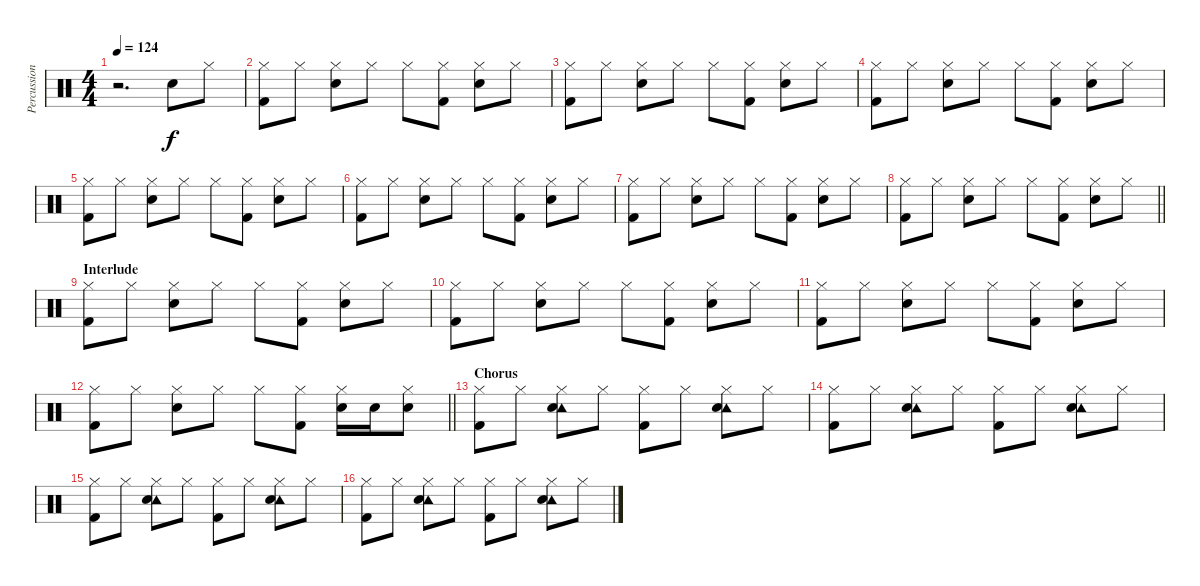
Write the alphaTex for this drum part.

\track ("Percussion" "Percussion") {instrument percussion}
\staff {score}
\articulation defaults
\ts (4 4)
\tempo 124
\clef neutral
\ks c
r.2{d dy f} "Snare (hit) 2".8 "Hi-Hat (closed)".8 |
("Hi-Hat (closed)" "Kick (hit) 2").8 "Hi-Hat (closed)".8 ("Hi-Hat (closed)" "Snare (hit) 2").8 "Hi-Hat (closed)".8 "Hi-Hat (closed)".8 ("Hi-Hat (closed)" "Kick (hit) 2").8 ("Hi-Hat (closed)" "Snare (hit) 2").8 "Hi-Hat (closed)".8 |
("Hi-Hat (closed)" "Kick (hit) 2").8 "Hi-Hat (closed)".8 ("Hi-Hat (closed)" "Snare (hit) 2").8 "Hi-Hat (closed)".8 "Hi-Hat (closed)".8 ("Hi-Hat (closed)" "Kick (hit) 2").8 ("Hi-Hat (closed)" "Snare (hit) 2").8 "Hi-Hat (closed)".8 |
("Hi-Hat (closed)" "Kick (hit) 2").8 "Hi-Hat (closed)".8 ("Hi-Hat (closed)" "Snare (hit) 2").8 "Hi-Hat (closed)".8 "Hi-Hat (closed)".8 ("Hi-Hat (closed)" "Kick (hit) 2").8 ("Hi-Hat (closed)" "Snare (hit) 2").8 "Hi-Hat (closed)".8 |
("Hi-Hat (closed)" "Kick (hit) 2").8 "Hi-Hat (closed)".8 ("Hi-Hat (closed)" "Snare (hit) 2").8 "Hi-Hat (closed)".8 "Hi-Hat (closed)".8 ("Hi-Hat (closed)" "Kick (hit) 2").8 ("Hi-Hat (closed)" "Snare (hit) 2").8 "Hi-Hat (closed)".8 |
("Hi-Hat (closed)" "Kick (hit) 2").8 "Hi-Hat (closed)".8 ("Hi-Hat (closed)" "Snare (hit) 2").8 "Hi-Hat (closed)".8 "Hi-Hat (closed)".8 ("Hi-Hat (closed)" "Kick (hit) 2").8 ("Hi-Hat (closed)" "Snare (hit) 2").8 "Hi-Hat (closed)".8 |
("Hi-Hat (closed)" "Kick (hit) 2").8 "Hi-Hat (closed)".8 ("Hi-Hat (closed)" "Snare (hit) 2").8 "Hi-Hat (closed)".8 "Hi-Hat (closed)".8 ("Hi-Hat (closed)" "Kick (hit) 2").8 ("Hi-Hat (closed)" "Snare (hit) 2").8 "Hi-Hat (closed)".8 |
\barLineRight lightlight
("Hi-Hat (closed)" "Kick (hit) 2").8 "Hi-Hat (closed)".8 ("Hi-Hat (closed)" "Snare (hit) 2").8 "Hi-Hat (closed)".8 "Hi-Hat (closed)".8 ("Hi-Hat (closed)" "Kick (hit) 2").8 ("Hi-Hat (closed)" "Snare (hit) 2").8 "Hi-Hat (closed)".8 |
\section ("" "Interlude")
("Hi-Hat (closed)" "Kick (hit) 2").8 "Hi-Hat (closed)".8 ("Hi-Hat (closed)" "Snare (hit) 2").8 "Hi-Hat (closed)".8 "Hi-Hat (closed)".8 ("Hi-Hat (closed)" "Kick (hit) 2").8 ("Hi-Hat (closed)" "Snare (hit) 2").8 "Hi-Hat (closed)".8 |
("Hi-Hat (closed)" "Kick (hit) 2").8 "Hi-Hat (closed)".8 ("Hi-Hat (closed)" "Snare (hit) 2").8 "Hi-Hat (closed)".8 "Hi-Hat (closed)".8 ("Hi-Hat (closed)" "Kick (hit) 2").8 ("Hi-Hat (closed)" "Snare (hit) 2").8 "Hi-Hat (closed)".8 |
("Hi-Hat (closed)" "Kick (hit) 2").8 "Hi-Hat (closed)".8 ("Hi-Hat (closed)" "Snare (hit) 2").8 "Hi-Hat (closed)".8 "Hi-Hat (closed)".8 ("Hi-Hat (closed)" "Kick (hit) 2").8 ("Hi-Hat (closed)" "Snare (hit) 2").8 "Hi-Hat (closed)".8 |
\barLineRight lightlight
("Hi-Hat (closed)" "Kick (hit) 2").8 "Hi-Hat (closed)".8 ("Hi-Hat (closed)" "Snare (hit) 2").8 "Hi-Hat (closed)".8 "Hi-Hat (closed)".8 ("Hi-Hat (closed)" "Kick (hit) 2").8 ("Hi-Hat (closed)" "Snare (hit) 2").16 "Snare (hit) 2".16 ("Hi-Hat (closed)" "Snare (hit) 2").8 |
\section ("" "Chorus")
("Hi-Hat (closed)" "Kick (hit) 2").8 "Hi-Hat (closed)".8 ("Hi-Hat (closed)" "Tambourine (hit)" "Snare (hit) 2").8 "Hi-Hat (closed)".8 ("Hi-Hat (closed)" "Kick (hit) 2").8 "Hi-Hat (closed)".8 ("Hi-Hat (closed)" "Tambourine (hit)" "Snare (hit) 2").8 "Hi-Hat (closed)".8 |
("Hi-Hat (closed)" "Kick (hit) 2").8 "Hi-Hat (closed)".8 ("Hi-Hat (closed)" "Tambourine (hit)" "Snare (hit) 2").8 "Hi-Hat (closed)".8 ("Hi-Hat (closed)" "Kick (hit) 2").8 "Hi-Hat (closed)".8 ("Hi-Hat (closed)" "Tambourine (hit)" "Snare (hit) 2").8 "Hi-Hat (closed)".8 |
("Hi-Hat (closed)" "Kick (hit) 2").8 "Hi-Hat (closed)".8 ("Hi-Hat (closed)" "Tambourine (hit)" "Snare (hit) 2").8 "Hi-Hat (closed)".8 ("Hi-Hat (closed)" "Kick (hit) 2").8 "Hi-Hat (closed)".8 ("Hi-Hat (closed)" "Tambourine (hit)" "Snare (hit) 2").8 "Hi-Hat (closed)".8 |
("Hi-Hat (closed)" "Kick (hit) 2").8 "Hi-Hat (closed)".8 ("Hi-Hat (closed)" "Tambourine (hit)" "Snare (hit) 2").8 "Hi-Hat (closed)".8 ("Hi-Hat (closed)" "Kick (hit) 2").8 "Hi-Hat (closed)".8 ("Hi-Hat (closed)" "Tambourine (hit)" "Snare (hit) 2").8 "Hi-Hat (closed)".8
